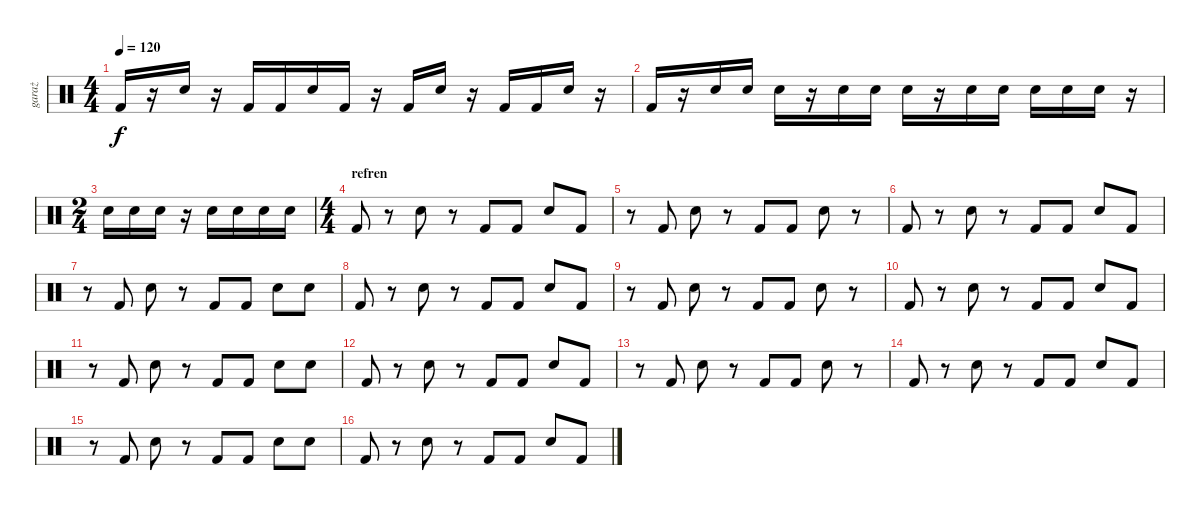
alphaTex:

\track ("garaż" "garaż") {instrument percussion}
\staff {score}
\articulation defaults
\ts (4 4)
\tempo 120
\clef neutral
\ks c "Kick (hit) 2".16{dy f}
r.16 "Snare (hit) 2".16 r.16 "Kick (hit) 2".16 "Kick (hit) 2".16 "Snare (hit) 2".16 "Kick (hit) 2".16 r.16 "Kick (hit) 2".16 "Snare (hit) 2".16 r.16 "Kick (hit) 2".16 "Kick (hit) 2".16 "Snare (hit) 2".16 r.16 |
"Kick (hit) 2".16 r.16 "Snare (hit) 2".16 "Snare (hit) 2".16 "Snare (hit) 2".16 r.16 "Snare (hit) 2".16 "Snare (hit) 2".16 "Snare (hit) 2".16 r.16 "Snare (hit) 2".16 "Snare (hit) 2".16 "Snare (hit) 2".16 "Snare (hit) 2".16 "Snare (hit) 2".16 r.16 |
\ts (2 4)
"Snare (hit) 2".16 "Snare (hit) 2".16 "Snare (hit) 2".16 r.16 "Snare (hit) 2".16 "Snare (hit) 2".16 "Snare (hit) 2".16 "Snare (hit) 2".16 |
\ts (4 4)
\section ("" "refren")
"Kick (hit) 2".8 r.8 "Snare (hit) 2".8 r.8 "Kick (hit) 2".8 "Kick (hit) 2".8 "Snare (hit) 2".8 "Kick (hit) 2".8 |
r.8 "Kick (hit) 2".8 "Snare (hit) 2".8 r.8 "Kick (hit) 2".8 "Kick (hit) 2".8 "Snare (hit) 2".8 r.8 |
"Kick (hit) 2".8 r.8 "Snare (hit) 2".8 r.8 "Kick (hit) 2".8 "Kick (hit) 2".8 "Snare (hit) 2".8 "Kick (hit) 2".8 |
r.8 "Kick (hit) 2".8 "Snare (hit) 2".8 r.8 "Kick (hit) 2".8 "Kick (hit) 2".8 "Snare (hit) 2".8 "Snare (hit) 2".8 |
"Kick (hit) 2".8 r.8 "Snare (hit) 2".8 r.8 "Kick (hit) 2".8 "Kick (hit) 2".8 "Snare (hit) 2".8 "Kick (hit) 2".8 |
r.8 "Kick (hit) 2".8 "Snare (hit) 2".8 r.8 "Kick (hit) 2".8 "Kick (hit) 2".8 "Snare (hit) 2".8 r.8 |
"Kick (hit) 2".8 r.8 "Snare (hit) 2".8 r.8 "Kick (hit) 2".8 "Kick (hit) 2".8 "Snare (hit) 2".8 "Kick (hit) 2".8 |
r.8 "Kick (hit) 2".8 "Snare (hit) 2".8 r.8 "Kick (hit) 2".8 "Kick (hit) 2".8 "Snare (hit) 2".8 "Snare (hit) 2".8 |
"Kick (hit) 2".8 r.8 "Snare (hit) 2".8 r.8 "Kick (hit) 2".8 "Kick (hit) 2".8 "Snare (hit) 2".8 "Kick (hit) 2".8 |
r.8 "Kick (hit) 2".8 "Snare (hit) 2".8 r.8 "Kick (hit) 2".8 "Kick (hit) 2".8 "Snare (hit) 2".8 r.8 |
"Kick (hit) 2".8 r.8 "Snare (hit) 2".8 r.8 "Kick (hit) 2".8 "Kick (hit) 2".8 "Snare (hit) 2".8 "Kick (hit) 2".8 |
r.8 "Kick (hit) 2".8 "Snare (hit) 2".8 r.8 "Kick (hit) 2".8 "Kick (hit) 2".8 "Snare (hit) 2".8 "Snare (hit) 2".8 |
"Kick (hit) 2".8 r.8 "Snare (hit) 2".8 r.8 "Kick (hit) 2".8 "Kick (hit) 2".8 "Snare (hit) 2".8 "Kick (hit) 2".8
